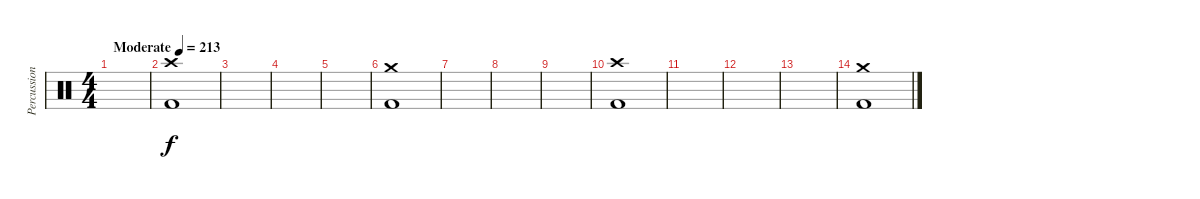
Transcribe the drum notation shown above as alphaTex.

\track ("Percussion" "Percussion") {instrument percussion}
\staff {score}
\articulation defaults
\ts (4 4)
\tempo (213 "Moderate")
\clef neutral
\ks c
|
("Crash high (hit)" "Kick (hit) 2").1 |
|
|
|
("Crash medium (hit)" "Kick (hit) 2").1 |
|
|
|
("Crash high (hit)" "Kick (hit) 2").1 |
|
|
|
("Crash medium (hit)" "Kick (hit) 2").1
